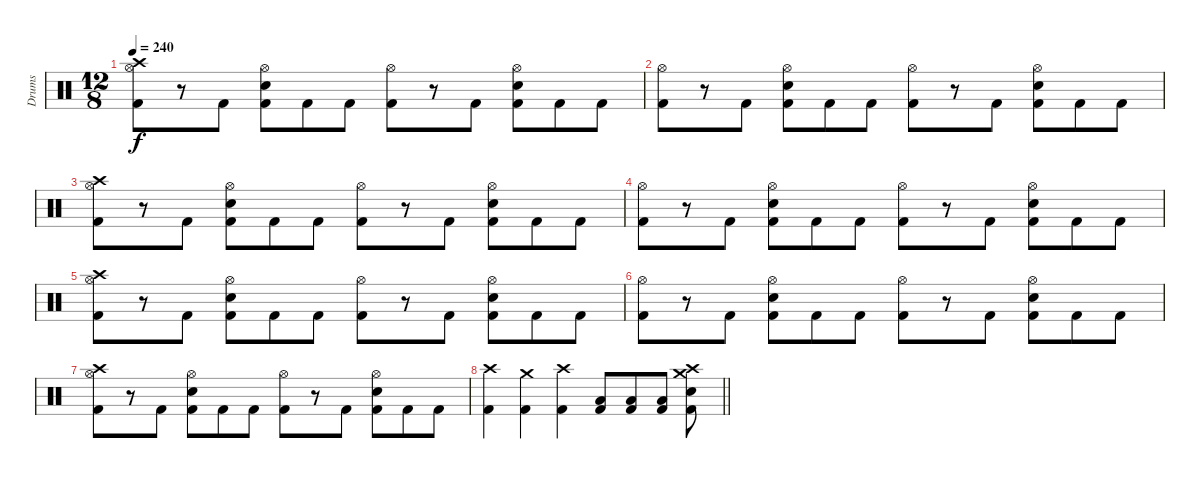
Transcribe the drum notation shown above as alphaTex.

\track ("Drums" "Drums") {instrument percussion}
\staff {score}
\articulation defaults
\ts (12 8)
\tempo 240
\clef neutral
\ks c
("Crash high (hit)" "Hi-Hat (open)" "Kick (hit) 2").8{dy f} r.8 "Kick (hit) 2".8 ("Hi-Hat (open)" "Snare (hit) 2" "Kick (hit) 2").8 "Kick (hit) 2".8 "Kick (hit) 2".8 ("Hi-Hat (open)" "Kick (hit) 2").8 r.8 "Kick (hit) 2".8 ("Hi-Hat (open)" "Snare (hit) 2" "Kick (hit) 2").8 "Kick (hit) 2".8 "Kick (hit) 2".8 |
("Hi-Hat (open)" "Kick (hit) 2").8 r.8 "Kick (hit) 2".8 ("Hi-Hat (open)" "Snare (hit) 2" "Kick (hit) 2").8 "Kick (hit) 2".8 "Kick (hit) 2".8 ("Hi-Hat (open)" "Kick (hit) 2").8 r.8 "Kick (hit) 2".8 ("Hi-Hat (open)" "Snare (hit) 2" "Kick (hit) 2").8 "Kick (hit) 2".8 "Kick (hit) 2".8 |
("Crash high (hit)" "Hi-Hat (open)" "Kick (hit) 2").8 r.8 "Kick (hit) 2".8 ("Hi-Hat (open)" "Snare (hit) 2" "Kick (hit) 2").8 "Kick (hit) 2".8 "Kick (hit) 2".8 ("Hi-Hat (open)" "Kick (hit) 2").8 r.8 "Kick (hit) 2".8 ("Hi-Hat (open)" "Snare (hit) 2" "Kick (hit) 2").8 "Kick (hit) 2".8 "Kick (hit) 2".8 |
("Hi-Hat (open)" "Kick (hit) 2").8 r.8 "Kick (hit) 2".8 ("Hi-Hat (open)" "Snare (hit) 2" "Kick (hit) 2").8 "Kick (hit) 2".8 "Kick (hit) 2".8 ("Hi-Hat (open)" "Kick (hit) 2").8 r.8 "Kick (hit) 2".8 ("Hi-Hat (open)" "Snare (hit) 2" "Kick (hit) 2").8 "Kick (hit) 2".8 "Kick (hit) 2".8 |
("Crash high (hit)" "Hi-Hat (open)" "Kick (hit) 2").8 r.8 "Kick (hit) 2".8 ("Hi-Hat (open)" "Snare (hit) 2" "Kick (hit) 2").8 "Kick (hit) 2".8 "Kick (hit) 2".8 ("Hi-Hat (open)" "Kick (hit) 2").8 r.8 "Kick (hit) 2".8 ("Hi-Hat (open)" "Snare (hit) 2" "Kick (hit) 2").8 "Kick (hit) 2".8 "Kick (hit) 2".8 |
("Hi-Hat (open)" "Kick (hit) 2").8 r.8 "Kick (hit) 2".8 ("Hi-Hat (open)" "Snare (hit) 2" "Kick (hit) 2").8 "Kick (hit) 2".8 "Kick (hit) 2".8 ("Hi-Hat (open)" "Kick (hit) 2").8 r.8 "Kick (hit) 2".8 ("Hi-Hat (open)" "Snare (hit) 2" "Kick (hit) 2").8 "Kick (hit) 2".8 "Kick (hit) 2".8 |
("Crash high (hit)" "Hi-Hat (open)" "Kick (hit) 2").8 r.8 "Kick (hit) 2".8 ("Hi-Hat (open)" "Snare (hit) 2" "Kick (hit) 2").8 "Kick (hit) 2".8 "Kick (hit) 2".8 ("Hi-Hat (open)" "Kick (hit) 2").8 r.8 "Kick (hit) 2".8 ("Hi-Hat (open)" "Snare (hit) 2" "Kick (hit) 2").8 "Kick (hit) 2".8 "Kick (hit) 2".8 |
\barLineRight lightlight
("Crash high (hit)" "Kick (hit) 2").4 ("Crash medium (hit)" "Kick (hit) 2").4 ("Crash high (hit)" "Kick (hit) 2").4 ("Low Floor Tom (hit)" "Kick (hit) 2").8 ("Low Floor Tom (hit)" "Kick (hit) 2").8 ("Low Floor Tom (hit)" "Kick (hit) 2").8 ("Crash high (hit)" "Crash medium (hit)" "Snare (hit) 2" "Kick (hit) 2").8
